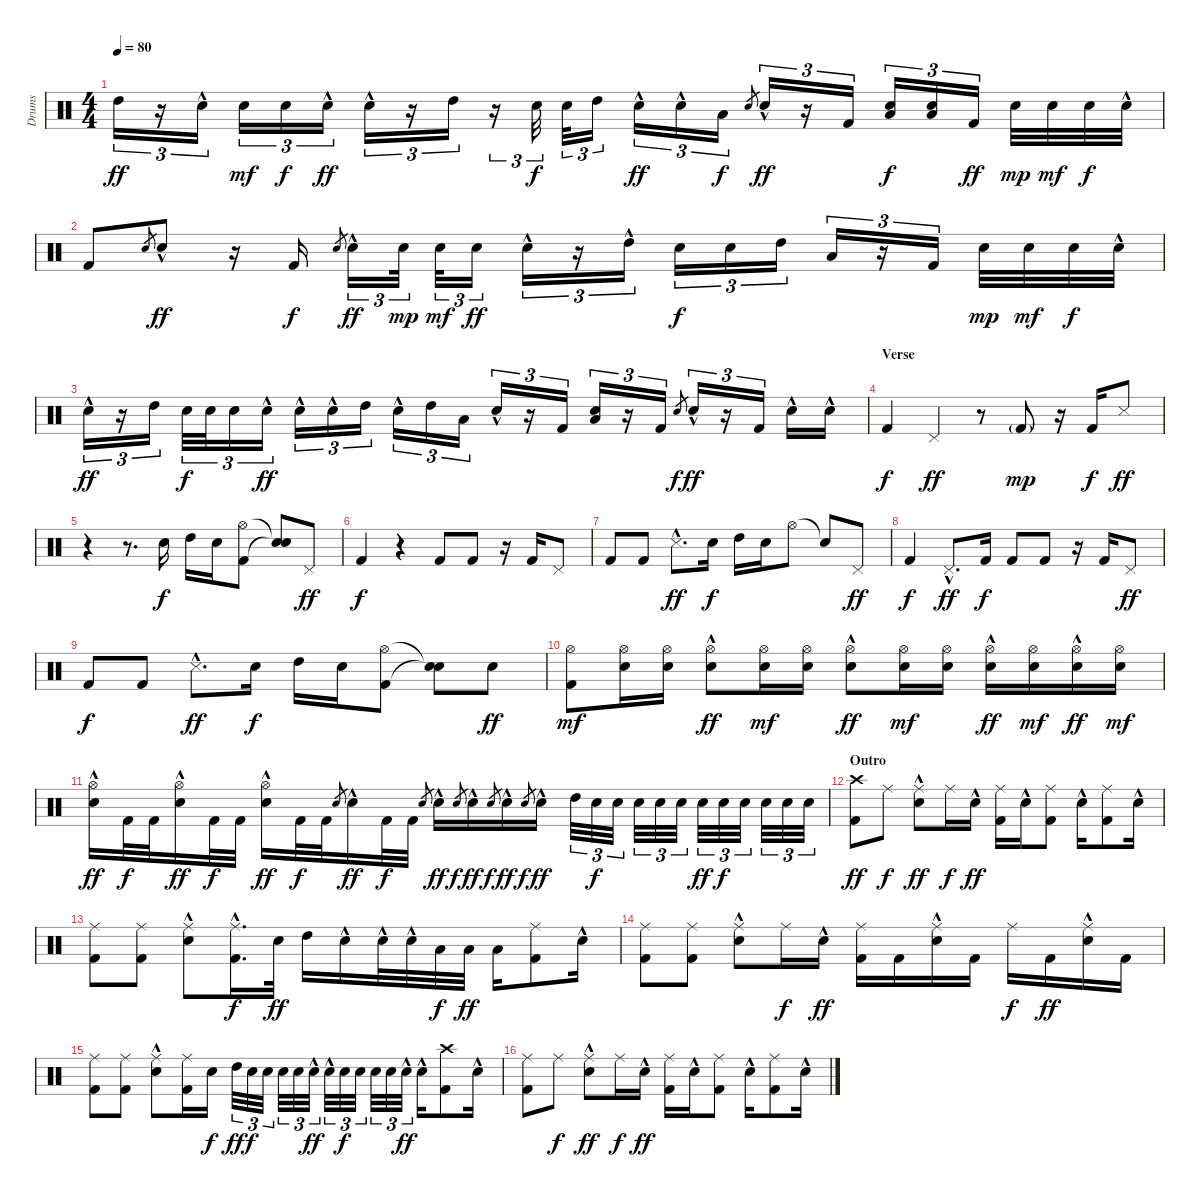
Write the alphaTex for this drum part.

\track ("Drums" "Drums") {instrument percussion}
\staff {score}
\articulation defaults
\ts (4 4)
\tempo 80
\clef neutral
\ks c "High Tom (hit)".16{tu (3 2) dy ff}
r.16{tu (3 2)} "Electric Snare (hit)"{hac}.16{tu (3 2)} "Electric Snare (hit)".16{tu (3 2) dy mf} "Electric Snare (hit)".16{tu (3 2) dy f} "Electric Snare (hit)"{hac}.16{tu (3 2) dy ff} "Electric Snare (hit)"{hac}.16{tu (3 2)} r.16{tu (3 2)} "High Tom (hit)".16{tu (3 2)} r.16{tu (3 2)} "Electric Snare (hit)".32{tu (3 2) dy f} "Electric Snare (hit)".32{tu (3 2)} "High Tom (hit)".16{tu (3 2)} "Electric Snare (hit)"{hac}.16{tu (3 2) dy ff} "Electric Snare (hit)"{hac}.16{tu (3 2)} "Low Tom (hit)".16{tu (3 2) dy f} "Electric Snare (hit)".8{gr} "Electric Snare (hit)"{hac}.16{tu (3 2) dy ff} r.16{tu (3 2)} "Kick (hit) 2".16{tu (3 2)} ("Electric Snare (hit)" "Low Tom (hit)").16{tu (3 2) dy f} ("Electric Snare (hit)" "Low Tom (hit)").16{tu (3 2)} "Kick (hit) 2".16{tu (3 2) dy ff} "Electric Snare (hit)".32{dy mp} "Electric Snare (hit)".32{dy mf} "Electric Snare (hit)".32{dy f} "Electric Snare (hit)"{hac}.32 |
"Kick (hit) 2".8 "Electric Snare (hit)".8{gr} "Electric Snare (hit)"{hac}.8{dy ff} r.16 "Kick (hit) 2".16{dy f} "Electric Snare (hit)".8{gr} "Electric Snare (hit)"{hac}.16{tu (3 2) dy ff} "Electric Snare (hit)".32{tu (3 2) dy mp} "Electric Snare (hit)".32{tu (3 2) dy mf} "Electric Snare (hit)".16{tu (3 2) dy ff} "Electric Snare (hit)"{hac}.16{tu (3 2)} r.16{tu (3 2)} "High Tom (hit)"{hac}.16{tu (3 2)} "Electric Snare (hit)".16{tu (3 2) dy f} "Electric Snare (hit)".16{tu (3 2)} "High Tom (hit)".16{tu (3 2)} "Low Tom (hit)".16{tu (3 2)} r.16{tu (3 2)} "Kick (hit) 2".16{tu (3 2)} "Electric Snare (hit)".32{dy mp} "Electric Snare (hit)".32{dy mf} "Electric Snare (hit)".32{dy f} "Electric Snare (hit)"{hac}.32 |
"Electric Snare (hit)"{hac}.16{tu (3 2) dy ff} r.16{tu (3 2)} "High Tom (hit)".16{tu (3 2)} "Electric Snare (hit)".32{tu (3 2) dy f} "Electric Snare (hit)".32{tu (3 2)} "Electric Snare (hit)".16{tu (3 2)} "Electric Snare (hit)"{hac}.16{tu (3 2) dy ff} "Electric Snare (hit)"{hac}.16{tu (3 2)} "Electric Snare (hit)"{hac}.16{tu (3 2)} "High Tom (hit)".16{tu (3 2)} "Electric Snare (hit)"{hac}.16{tu (3 2)} "High Tom (hit)".16{tu (3 2)} "Low Tom (hit)".16{tu (3 2)} "Electric Snare (hit)"{hac}.16{tu (3 2)} r.16{tu (3 2)} "Kick (hit) 2".16{tu (3 2)} ("Electric Snare (hit)" "Low Tom (hit)").16{tu (3 2)} r.16{tu (3 2)} "Kick (hit) 2".16{tu (3 2)} "Electric Snare (hit)".8{gr dy f} "Electric Snare (hit)"{hac}.16{tu (3 2) dy ff} r.16{tu (3 2)} "Kick (hit) 2".16{tu (3 2)} "Electric Snare (hit)"{hac}.16 "Electric Snare (hit)"{hac}.16 |
\section ("" "Verse")
"Kick (hit) 2".4{dy f} "Pedal Hi-Hat (hit)".4{dy ff} r.8 "Kick (hit) 2"{g}.8{dy mp} r.16 "Kick (hit) 2".16{dy f} "Metronome (hit)".8{dy ff} |
r.4 r.8{d} "Electric Snare (hit)".16{dy f} "High Tom (hit)".16 "Electric Snare (hit)".16 ("Hi-Hat (open)" "Kick (hit) 2").8 ("Snare (hit)"{t} "Snare (hit)"{t}).8 "Pedal Hi-Hat (hit)".8{dy ff} |
"Kick (hit) 2".4{dy f} r.4 "Kick (hit) 2".8 "Kick (hit) 2".8 r.16 "Kick (hit) 2".16 "Pedal Hi-Hat (hit)".8 |
"Kick (hit) 2".8 "Kick (hit) 2".8 "Metronome (hit)"{hac}.8{d dy ff} "Electric Snare (hit)".16{dy f} "High Tom (hit)".16 "Electric Snare (hit)".16 "Hi-Hat (open)".8 "Snare (hit)"{t}.8 "Pedal Hi-Hat (hit)".8{dy ff} |
"Kick (hit) 2".4{dy f} "Pedal Hi-Hat (hit)"{hac}.8{d dy ff} "Kick (hit) 2".16{dy f} "Kick (hit) 2".8 "Kick (hit) 2".8 r.16 "Kick (hit) 2".16 "Pedal Hi-Hat (hit)".8{dy ff} |
"Kick (hit) 2".8{dy f} "Kick (hit) 2".8 "Metronome (hit)"{hac}.8{d dy ff} "Electric Snare (hit)".16{dy f} "High Tom (hit)".16 "Electric Snare (hit)".16 ("Hi-Hat (open)" "Kick (hit) 2").8 ("Snare (hit)"{t} "Snare (hit)"{t}).8 "Electric Snare (hit)".8{dy ff} |
("Hi-Hat (open)" "Kick (hit) 2").8{dy mf} ("Hi-Hat (open)" "Electric Snare (hit)").16 ("Hi-Hat (open)" "Electric Snare (hit)").16 ("Hi-Hat (open)" "Electric Snare (hit)"{hac}).8{dy ff} ("Hi-Hat (open)" "Electric Snare (hit)").16{dy mf} ("Hi-Hat (open)" "Electric Snare (hit)").16 ("Hi-Hat (open)" "Electric Snare (hit)"{hac}).8{dy ff} ("Hi-Hat (open)" "Electric Snare (hit)").16{dy mf} ("Hi-Hat (open)" "Electric Snare (hit)").16 ("Hi-Hat (open)" "Electric Snare (hit)"{hac}).16{dy ff} ("Hi-Hat (open)" "Electric Snare (hit)").16{dy mf} ("Hi-Hat (open)" "Electric Snare (hit)"{hac}).16{dy ff} ("Hi-Hat (open)" "Electric Snare (hit)").16{dy mf} |
("Hi-Hat (open)" "Electric Snare (hit)"{hac}).16{dy ff} "Kick (hit) 2".32{dy f} "Kick (hit) 2".32 ("Hi-Hat (open)" "Electric Snare (hit)"{hac}).16{dy ff} "Kick (hit) 2".32{dy f} "Kick (hit) 2".32 ("Hi-Hat (open)" "Electric Snare (hit)"{hac}).16{dy ff} "Kick (hit) 2".32{dy f} "Kick (hit) 2".32 "Electric Snare (hit)".8{gr} "Electric Snare (hit)"{hac}.16{dy ff} "Kick (hit) 2".32{dy f} "Kick (hit) 2".32 "Electric Snare (hit)".8{gr} "Electric Snare (hit)"{hac}.16{dy ff} "Electric Snare (hit)".8{gr dy f} "Electric Snare (hit)"{hac}.16{dy ff} "Electric Snare (hit)".8{gr dy f} "Electric Snare (hit)"{hac}.16{dy ff} "Electric Snare (hit)".8{gr dy f} "Electric Snare (hit)"{hac}.16{dy ff} "High Tom (hit)".32{tu (3 2)} "Electric Snare (hit)".32{tu (3 2) dy f} "Electric Snare (hit)".32{tu (3 2)} "Electric Snare (hit)".32{tu (3 2)} "Electric Snare (hit)".32{tu (3 2)} "Electric Snare (hit)".32{tu (3 2)} "Electric Snare (hit)".32{tu (3 2) dy ff} "Electric Snare (hit)".32{tu (3 2) dy f} "Electric Snare (hit)".32{tu (3 2)} "Electric Snare (hit)".32{tu (3 2)} "Electric Snare (hit)".32{tu (3 2)} "Electric Snare (hit)".32{tu (3 2)} |
\section ("" "Outro")
("Crash high (hit)" "Kick (hit) 2").8{dy ff} "Ride (middle)".8{dy f} ("Ride (middle)" "Electric Snare (hit)"{hac}).8{dy ff} "Ride (middle)".16{dy f} "Electric Snare (hit)"{hac}.16{dy ff} ("Ride (middle)" "Kick (hit) 2").16 "Electric Snare (hit)"{hac}.16 ("Ride (middle)" "Kick (hit) 2").8 "Electric Snare (hit)"{hac}.16 ("Ride (middle)" "Kick (hit) 2").8 "Electric Snare (hit)"{hac}.16 |
("Ride (middle)" "Kick (hit) 2").8 ("Ride (middle)" "Kick (hit) 2").8 ("Ride (middle)" "Electric Snare (hit)"{hac}).8 ("Ride (middle)"{hac} "Kick (hit) 2"{hac}).16{d dy f} "Electric Snare (hit)".32{dy ff} "High Tom (hit)".16 "Electric Snare (hit)"{hac}.16 "Electric Snare (hit)"{hac}.32 "Electric Snare (hit)"{hac}.32 "Low Tom (hit)".32{dy f} "Low Tom (hit)".32{dy ff} "Low Tom (hit)".16 ("Ride (middle)" "Kick (hit) 2").8 "Electric Snare (hit)"{hac}.16 |
("Ride (middle)" "Kick (hit) 2").8 ("Ride (middle)" "Kick (hit) 2").8 ("Ride (middle)" "Electric Snare (hit)"{hac}).8 "Ride (middle)".16{dy f} "Electric Snare (hit)"{hac}.16{dy ff} ("Ride (middle)" "Kick (hit) 2").16 "Kick (hit) 2".16 ("Ride (middle)" "Electric Snare (hit)"{hac}).16 "Kick (hit) 2".16 "Ride (middle)".16{dy f} "Kick (hit) 2".16{dy ff} ("Ride (middle)" "Electric Snare (hit)"{hac}).16 "Kick (hit) 2".16 |
("Ride (middle)" "Kick (hit) 2").8 ("Ride (middle)" "Kick (hit) 2").8 ("Ride (middle)" "Electric Snare (hit)"{hac}).8 ("Ride (middle)" "Kick (hit) 2").16 "Electric Snare (hit)".16{dy f} "High Tom (hit)".32{tu (3 2) dy ff} "Electric Snare (hit)".32{tu (3 2) dy f} "Electric Snare (hit)".32{tu (3 2)} "Electric Snare (hit)".32{tu (3 2)} "Electric Snare (hit)".32{tu (3 2)} "Electric Snare (hit)"{hac}.32{tu (3 2) dy ff} "Electric Snare (hit)"{hac}.32{tu (3 2)} "Electric Snare (hit)".32{tu (3 2) dy f} "Electric Snare (hit)".32{tu (3 2)} "Electric Snare (hit)".32{tu (3 2)} "Electric Snare (hit)".32{tu (3 2)} "Electric Snare (hit)"{hac}.32{tu (3 2) dy ff} "Electric Snare (hit)"{hac}.16 ("Crash high (hit)" "Kick (hit) 2").8 "Electric Snare (hit)"{hac}.16 |
("Ride (middle)" "Kick (hit) 2").8 "Ride (middle)".8{dy f} ("Ride (middle)" "Electric Snare (hit)"{hac}).8{dy ff} "Ride (middle)".16{dy f} "Electric Snare (hit)"{hac}.16{dy ff} ("Ride (middle)" "Kick (hit) 2").16 "Electric Snare (hit)"{hac}.16 ("Ride (middle)" "Kick (hit) 2").8 "Electric Snare (hit)"{hac}.16 ("Ride (middle)" "Kick (hit) 2").8 "Electric Snare (hit)"{hac}.16
